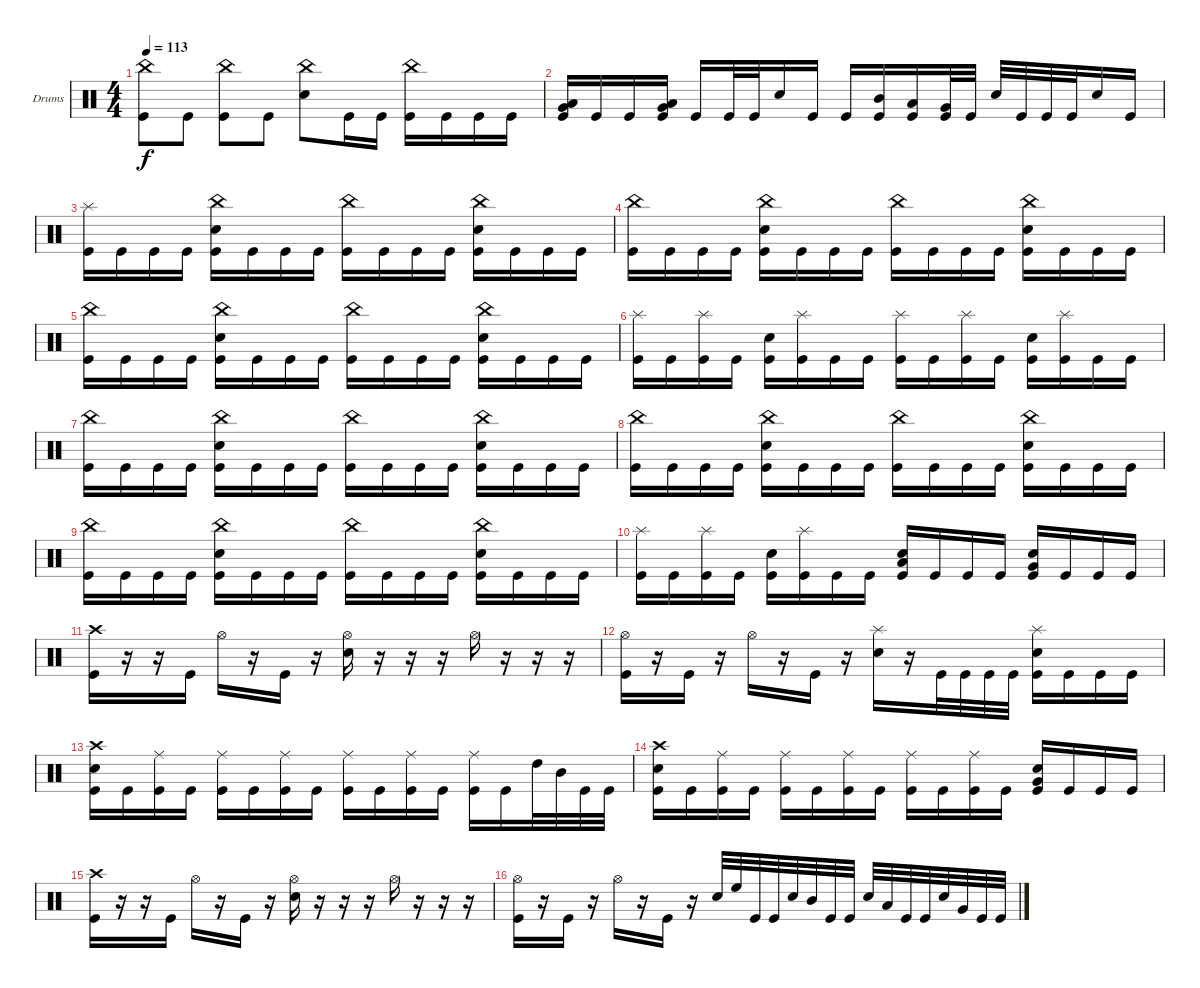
\bracketExtendMode groupsimilarinstruments
\firstSystemTrackNameOrientation horizontal
\otherSystemsTrackNameOrientation horizontal
\track ("Drumkit" "Drums") {instrument percussion}
\staff {score}
\articulation defaults
\ts (4 4)
\tempo 113
\clef neutral
\ks c
("China (hit)" "Kick (hit)").8{dy f} "Kick (hit)".8 ("China (hit)" "Kick (hit)").8 "Kick (hit)".8 ("China (hit)" "Snare (hit) 2").8 "Kick (hit)".16 "Kick (hit)".16 ("China (hit)" "Kick (hit)").16 "Kick (hit)".16 "Kick (hit)".16 "Kick (hit)".16 |
("Low Tom (hit)" "Very Low Tom (hit)" "Kick (hit)").16 "Kick (hit)".16 "Kick (hit)".16 ("Low Tom (hit)" "Very Low Tom (hit)" "Kick (hit)").16 "Kick (hit)".16 "Kick (hit)".32 "Kick (hit)".32 "Snare (hit) 2".16 "Kick (hit)".16 "Kick (hit)".16 ("Mid Tom (hit)" "Kick (hit)").16 ("Low Tom (hit)" "Kick (hit)").16 ("Very Low Tom (hit)" "Kick (hit)").32 "Kick (hit)".32 "Snare (hit) 2".32 "Kick (hit)".32 "Kick (hit)".32 "Kick (hit)".32 "Snare (hit) 2".16 "Kick (hit)".16 |
("Splash (hit)" "Kick (hit)").16 "Kick (hit)".16 "Kick (hit)".16 "Kick (hit)".16 ("China (hit)" "Snare (hit) 2" "Kick (hit)").16 "Kick (hit)".16 "Kick (hit)".16 "Kick (hit)".16 ("China (hit)" "Kick (hit)").16 "Kick (hit)".16 "Kick (hit)".16 "Kick (hit)".16 ("China (hit)" "Snare (hit) 2" "Kick (hit)").16 "Kick (hit)".16 "Kick (hit)".16 "Kick (hit)".16 |
("China (hit)" "Kick (hit)").16 "Kick (hit)".16 "Kick (hit)".16 "Kick (hit)".16 ("China (hit)" "Snare (hit) 2" "Kick (hit)").16 "Kick (hit)".16 "Kick (hit)".16 "Kick (hit)".16 ("China (hit)" "Kick (hit)").16 "Kick (hit)".16 "Kick (hit)".16 "Kick (hit)".16 ("China (hit)" "Snare (hit) 2" "Kick (hit)").16 "Kick (hit)".16 "Kick (hit)".16 "Kick (hit)".16 |
("China (hit)" "Kick (hit)").16 "Kick (hit)".16 "Kick (hit)".16 "Kick (hit)".16 ("China (hit)" "Snare (hit) 2" "Kick (hit)").16 "Kick (hit)".16 "Kick (hit)".16 "Kick (hit)".16 ("China (hit)" "Kick (hit)").16 "Kick (hit)".16 "Kick (hit)".16 "Kick (hit)".16 ("China (hit)" "Snare (hit) 2" "Kick (hit)").16 "Kick (hit)".16 "Kick (hit)".16 "Kick (hit)".16 |
("Splash (hit)" "Kick (hit)").16 "Kick (hit)".16 ("Splash (hit)" "Kick (hit)").16 "Kick (hit)".16 ("Snare (hit) 2" "Kick (hit)").16 ("Splash (hit)" "Kick (hit)").16 "Kick (hit)".16 "Kick (hit)".16 ("Splash (hit)" "Kick (hit)").16 "Kick (hit)".16 ("Splash (hit)" "Kick (hit)").16 "Kick (hit)".16 ("Snare (hit) 2" "Kick (hit)").16 ("Splash (hit)" "Kick (hit)").16 "Kick (hit)".16 "Kick (hit)".16 |
("China (hit)" "Kick (hit)").16 "Kick (hit)".16 "Kick (hit)".16 "Kick (hit)".16 ("China (hit)" "Snare (hit) 2" "Kick (hit)").16 "Kick (hit)".16 "Kick (hit)".16 "Kick (hit)".16 ("China (hit)" "Kick (hit)").16 "Kick (hit)".16 "Kick (hit)".16 "Kick (hit)".16 ("China (hit)" "Snare (hit) 2" "Kick (hit)").16 "Kick (hit)".16 "Kick (hit)".16 "Kick (hit)".16 |
("China (hit)" "Kick (hit)").16 "Kick (hit)".16 "Kick (hit)".16 "Kick (hit)".16 ("China (hit)" "Snare (hit) 2" "Kick (hit)").16 "Kick (hit)".16 "Kick (hit)".16 "Kick (hit)".16 ("China (hit)" "Kick (hit)").16 "Kick (hit)".16 "Kick (hit)".16 "Kick (hit)".16 ("China (hit)" "Snare (hit) 2" "Kick (hit)").16 "Kick (hit)".16 "Kick (hit)".16 "Kick (hit)".16 |
("China (hit)" "Kick (hit)").16 "Kick (hit)".16 "Kick (hit)".16 "Kick (hit)".16 ("China (hit)" "Snare (hit) 2" "Kick (hit)").16 "Kick (hit)".16 "Kick (hit)".16 "Kick (hit)".16 ("China (hit)" "Kick (hit)").16 "Kick (hit)".16 "Kick (hit)".16 "Kick (hit)".16 ("China (hit)" "Snare (hit) 2" "Kick (hit)").16 "Kick (hit)".16 "Kick (hit)".16 "Kick (hit)".16 |
("Splash (hit)" "Kick (hit)").16 "Kick (hit)".16 ("Splash (hit)" "Kick (hit)").16 "Kick (hit)".16 ("Snare (hit) 2" "Kick (hit)").16 ("Splash (hit)" "Kick (hit)").16 "Kick (hit)".16 "Kick (hit)".16 ("Snare (hit) 2" "Low Tom (hit)" "Kick (hit)").16 "Kick (hit)".16 "Kick (hit)".16 "Kick (hit)".16 ("Snare (hit) 2" "Very Low Tom (hit)" "Kick (hit)").16 "Kick (hit)".16 "Kick (hit)".16 "Kick (hit)".16 |
("Crash high (hit)" "Kick (hit)").16 r.16 r.16 "Kick (hit)".16 "Hi-Hat (open)".16 r.16 "Kick (hit)".16 r.16 ("Hi-Hat (open)" "Snare (hit) 2").16 r.16 r.16 r.16 "Hi-Hat (open)".16 r.16 r.16 r.16 |
("Hi-Hat (open)" "Kick (hit)").16 r.16 "Kick (hit)".16 r.16 "Hi-Hat (open)".16 r.16 "Kick (hit)".16 r.16 ("Splash (hit)" "Snare (hit) 2").16 r.16 "Kick (hit)".32 "Kick (hit)".32 "Kick (hit)".32 "Kick (hit)".32 ("Splash (hit)" "Snare (hit) 2" "Kick (hit)").16 "Kick (hit)".16 "Kick (hit)".16 "Kick (hit)".16 |
("Crash high (hit)" "Snare (hit) 2" "Kick (hit)").16 "Kick (hit)".16 ("Ride (middle)" "Kick (hit)").16 "Kick (hit)".16 ("Ride (middle)" "Kick (hit)").16 "Kick (hit)".16 ("Ride (middle)" "Kick (hit)").16 "Kick (hit)".16 ("Ride (middle)" "Kick (hit)").16 "Kick (hit)".16 ("Ride (middle)" "Kick (hit)").16 "Kick (hit)".16 ("Ride (middle)" "Kick (hit)").16 "Kick (hit)".16 "High Tom (hit)".32 "Mid Tom (hit)".32 "Kick (hit)".32 "Kick (hit)".32 |
("Crash high (hit)" "Snare (hit) 2" "Kick (hit)").16 "Kick (hit)".16 ("Ride (middle)" "Kick (hit)").16 "Kick (hit)".16 ("Ride (middle)" "Kick (hit)").16 "Kick (hit)".16 ("Ride (middle)" "Kick (hit)").16 "Kick (hit)".16 ("Ride (middle)" "Kick (hit)").16 "Kick (hit)".16 ("Ride (middle)" "Kick (hit)").16 "Kick (hit)".16 ("Snare (hit) 2" "Very Low Tom (hit)" "Kick (hit)").16 "Kick (hit)".16 "Kick (hit)".16 "Kick (hit)".16 |
("Crash high (hit)" "Kick (hit)").16 r.16 r.16 "Kick (hit)".16 "Hi-Hat (open)".16 r.16 "Kick (hit)".16 r.16 ("Hi-Hat (open)" "Snare (hit) 2").16 r.16 r.16 r.16 "Hi-Hat (open)".16 r.16 r.16 r.16 |
("Hi-Hat (open)" "Kick (hit)").16 r.16 "Kick (hit)".16 r.16 "Hi-Hat (open)".16 r.16 "Kick (hit)".16 r.16 "Snare (hit) 2".32 "High Floor Tom (hit)".32 "Kick (hit)".32 "Kick (hit)".32 "Snare (hit) 2".32 "Mid Tom (hit)".32 "Kick (hit)".32 "Kick (hit)".32 "Snare (hit) 2".32 "Low Tom (hit)".32 "Kick (hit)".32 "Kick (hit)".32 "Snare (hit) 2".32 "Very Low Tom (hit)".32 "Kick (hit)".32 "Kick (hit)".32
